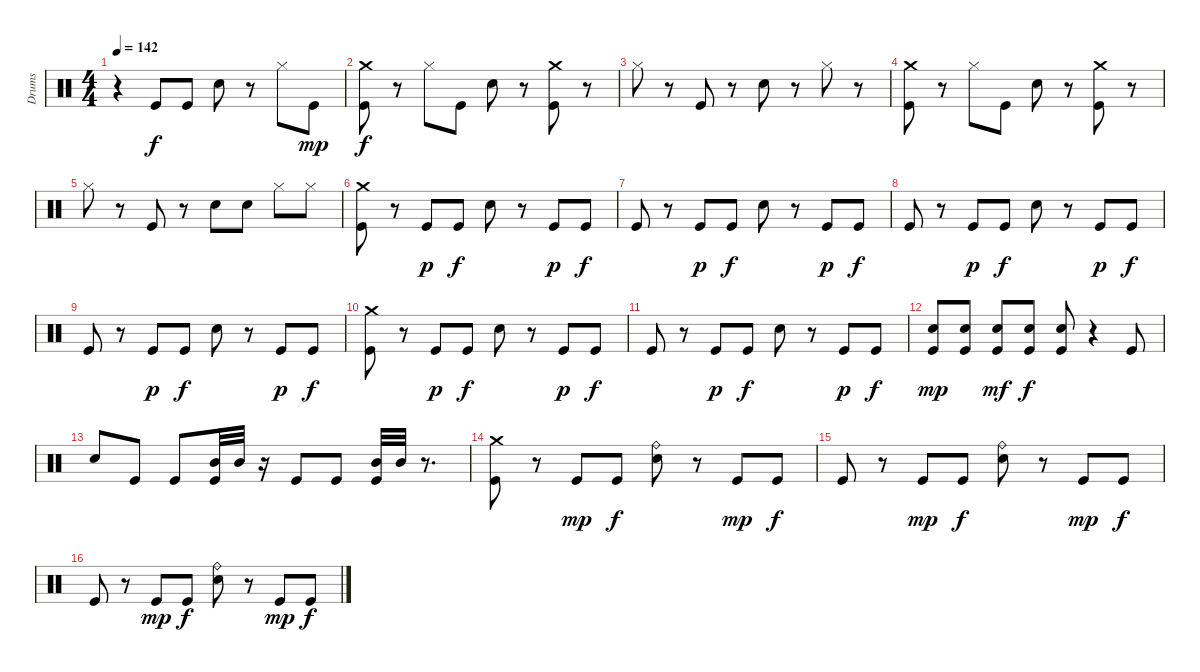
\track ("Drums" "Drums") {instrument percussion}
\staff {score}
\articulation defaults
\ts (4 4)
\tempo 142
\clef neutral
\ks c
r.4{dy f} "Kick (hit)".8 "Kick (hit)".8 "Electric Snare (hit)".8 r.8 "Hi-Hat (closed)".8 "Kick (hit)".8{dy mp} |
("Crash medium (hit)" "Kick (hit)").8{dy f} r.8 "Hi-Hat (closed)".8 "Kick (hit)".8 "Electric Snare (hit)".8 r.8 ("Crash medium (hit)" "Kick (hit)").8 r.8 |
"Hi-Hat (closed)".8 r.8 "Kick (hit)".8 r.8 "Electric Snare (hit)".8 r.8 "Hi-Hat (closed)".8 r.8 |
("Crash medium (hit)" "Kick (hit)").8 r.8 "Hi-Hat (closed)".8 "Kick (hit)".8 "Electric Snare (hit)".8 r.8 ("Crash medium (hit)" "Kick (hit)").8 r.8 |
"Hi-Hat (closed)".8 r.8 "Kick (hit)".8 r.8 "Electric Snare (hit)".8 "Electric Snare (hit)".8 "Hi-Hat (closed)".8 "Hi-Hat (closed)".8 |
("Crash medium (hit)" "Kick (hit)").8 r.8 "Kick (hit)".8{dy p} "Kick (hit)".8{dy f} "Electric Snare (hit)".8 r.8 "Kick (hit)".8{dy p} "Kick (hit)".8{dy f} |
"Kick (hit)".8 r.8 "Kick (hit)".8{dy p} "Kick (hit)".8{dy f} "Electric Snare (hit)".8 r.8 "Kick (hit)".8{dy p} "Kick (hit)".8{dy f} |
"Kick (hit)".8 r.8 "Kick (hit)".8{dy p} "Kick (hit)".8{dy f} "Electric Snare (hit)".8 r.8 "Kick (hit)".8{dy p} "Kick (hit)".8{dy f} |
"Kick (hit)".8 r.8 "Kick (hit)".8{dy p} "Kick (hit)".8{dy f} "Electric Snare (hit)".8 r.8 "Kick (hit)".8{dy p} "Kick (hit)".8{dy f} |
("Crash medium (hit)" "Kick (hit)").8 r.8 "Kick (hit)".8{dy p} "Kick (hit)".8{dy f} "Electric Snare (hit)".8 r.8 "Kick (hit)".8{dy p} "Kick (hit)".8{dy f} |
"Kick (hit)".8 r.8 "Kick (hit)".8{dy p} "Kick (hit)".8{dy f} "Electric Snare (hit)".8 r.8 "Kick (hit)".8{dy p} "Kick (hit)".8{dy f} |
("Electric Snare (hit)" "Kick (hit)").8{dy mp} ("Electric Snare (hit)" "Kick (hit)").8 ("Electric Snare (hit)" "Kick (hit)").8{dy mf} ("Electric Snare (hit)" "Kick (hit)").8{dy f} ("Electric Snare (hit)" "Kick (hit)").8 r.4 "Kick (hit)".8 |
"Electric Snare (hit)".8 "Kick (hit)".8 "Kick (hit)".8 ("Kick (hit)" "Mid Tom (hit)").32 "Mid Tom (hit)".32 r.16 "Kick (hit)".8 "Kick (hit)".8 ("Kick (hit)" "Mid Tom (hit)").32 "Mid Tom (hit)".32 r.8{d} |
("Crash medium (hit)" "Kick (hit)").8 r.8 "Kick (hit)".8{dy mp} "Kick (hit)".8{dy f} ("Ride (bell)" "Electric Snare (hit)").8 r.8 "Kick (hit)".8{dy mp} "Kick (hit)".8{dy f} |
"Kick (hit)".8 r.8 "Kick (hit)".8{dy mp} "Kick (hit)".8{dy f} ("Ride (bell)" "Electric Snare (hit)").8 r.8 "Kick (hit)".8{dy mp} "Kick (hit)".8{dy f} |
"Kick (hit)".8 r.8 "Kick (hit)".8{dy mp} "Kick (hit)".8{dy f} ("Ride (bell)" "Electric Snare (hit)").8 r.8 "Kick (hit)".8{dy mp} "Kick (hit)".8{dy f}
